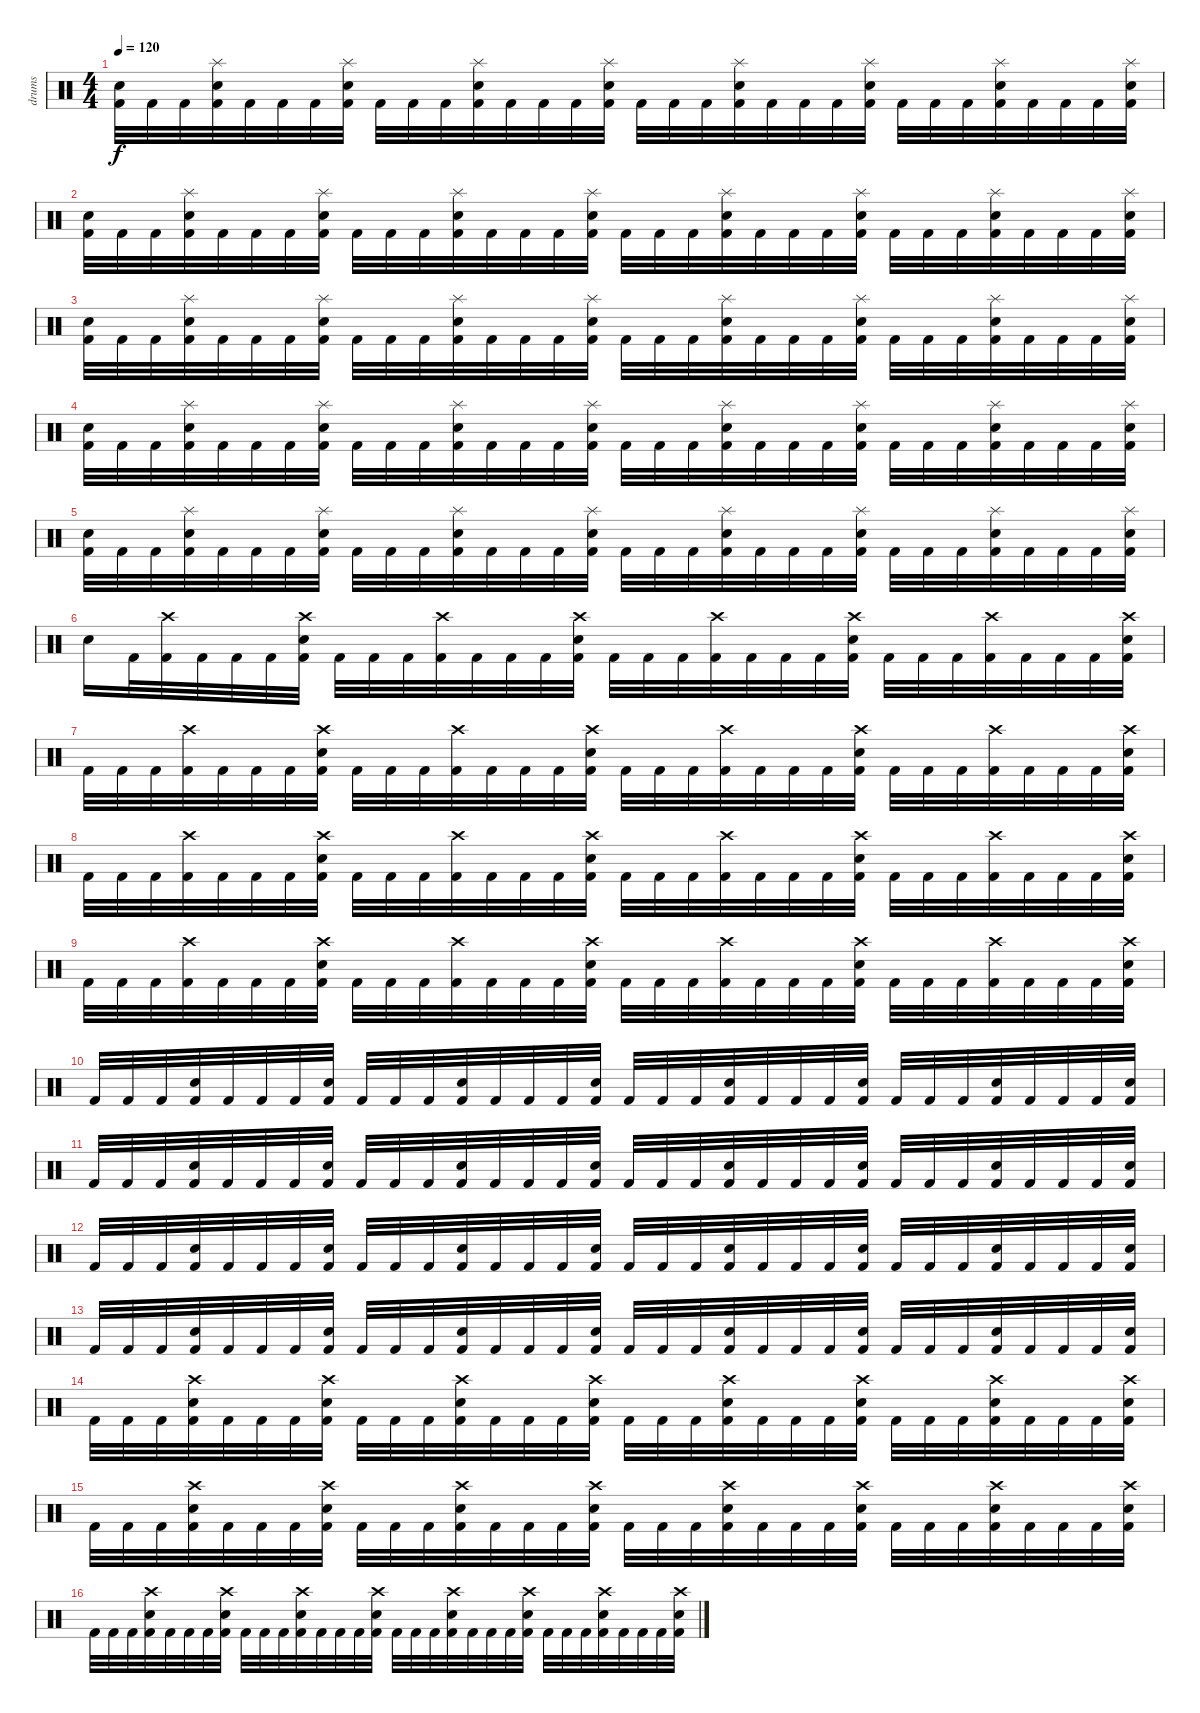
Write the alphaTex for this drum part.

\track ("drums" "drums") {instrument percussion}
\staff {score}
\articulation defaults
\ts (4 4)
\tempo 120
\clef neutral
\ks c
("Electric Snare (hit)" "Kick (hit) 2").32{dy f} "Kick (hit) 2".32 "Kick (hit) 2".32 ("Splash (hit)" "Electric Snare (hit)" "Kick (hit) 2").32 "Kick (hit) 2".32 "Kick (hit) 2".32 "Kick (hit) 2".32 ("Splash (hit)" "Electric Snare (hit)" "Kick (hit) 2").32 "Kick (hit) 2".32 "Kick (hit) 2".32 "Kick (hit) 2".32 ("Splash (hit)" "Electric Snare (hit)" "Kick (hit) 2").32 "Kick (hit) 2".32 "Kick (hit) 2".32 "Kick (hit) 2".32 ("Splash (hit)" "Electric Snare (hit)" "Kick (hit) 2").32 "Kick (hit) 2".32 "Kick (hit) 2".32 "Kick (hit) 2".32 ("Splash (hit)" "Electric Snare (hit)" "Kick (hit) 2").32 "Kick (hit) 2".32 "Kick (hit) 2".32 "Kick (hit) 2".32 ("Splash (hit)" "Electric Snare (hit)" "Kick (hit) 2").32 "Kick (hit) 2".32 "Kick (hit) 2".32 "Kick (hit) 2".32 ("Splash (hit)" "Electric Snare (hit)" "Kick (hit) 2").32 "Kick (hit) 2".32 "Kick (hit) 2".32 "Kick (hit) 2".32 ("Splash (hit)" "Electric Snare (hit)" "Kick (hit) 2").32 |
("Electric Snare (hit)" "Kick (hit) 2").32 "Kick (hit) 2".32 "Kick (hit) 2".32 ("Splash (hit)" "Electric Snare (hit)" "Kick (hit) 2").32 "Kick (hit) 2".32 "Kick (hit) 2".32 "Kick (hit) 2".32 ("Splash (hit)" "Electric Snare (hit)" "Kick (hit) 2").32 "Kick (hit) 2".32 "Kick (hit) 2".32 "Kick (hit) 2".32 ("Splash (hit)" "Electric Snare (hit)" "Kick (hit) 2").32 "Kick (hit) 2".32 "Kick (hit) 2".32 "Kick (hit) 2".32 ("Splash (hit)" "Electric Snare (hit)" "Kick (hit) 2").32 "Kick (hit) 2".32 "Kick (hit) 2".32 "Kick (hit) 2".32 ("Splash (hit)" "Electric Snare (hit)" "Kick (hit) 2").32 "Kick (hit) 2".32 "Kick (hit) 2".32 "Kick (hit) 2".32 ("Splash (hit)" "Electric Snare (hit)" "Kick (hit) 2").32 "Kick (hit) 2".32 "Kick (hit) 2".32 "Kick (hit) 2".32 ("Splash (hit)" "Electric Snare (hit)" "Kick (hit) 2").32 "Kick (hit) 2".32 "Kick (hit) 2".32 "Kick (hit) 2".32 ("Splash (hit)" "Electric Snare (hit)" "Kick (hit) 2").32 |
("Electric Snare (hit)" "Kick (hit) 2").32 "Kick (hit) 2".32 "Kick (hit) 2".32 ("Splash (hit)" "Electric Snare (hit)" "Kick (hit) 2").32 "Kick (hit) 2".32 "Kick (hit) 2".32 "Kick (hit) 2".32 ("Splash (hit)" "Electric Snare (hit)" "Kick (hit) 2").32 "Kick (hit) 2".32 "Kick (hit) 2".32 "Kick (hit) 2".32 ("Splash (hit)" "Electric Snare (hit)" "Kick (hit) 2").32 "Kick (hit) 2".32 "Kick (hit) 2".32 "Kick (hit) 2".32 ("Splash (hit)" "Electric Snare (hit)" "Kick (hit) 2").32 "Kick (hit) 2".32 "Kick (hit) 2".32 "Kick (hit) 2".32 ("Splash (hit)" "Electric Snare (hit)" "Kick (hit) 2").32 "Kick (hit) 2".32 "Kick (hit) 2".32 "Kick (hit) 2".32 ("Splash (hit)" "Electric Snare (hit)" "Kick (hit) 2").32 "Kick (hit) 2".32 "Kick (hit) 2".32 "Kick (hit) 2".32 ("Splash (hit)" "Electric Snare (hit)" "Kick (hit) 2").32 "Kick (hit) 2".32 "Kick (hit) 2".32 "Kick (hit) 2".32 ("Splash (hit)" "Electric Snare (hit)" "Kick (hit) 2").32 |
("Electric Snare (hit)" "Kick (hit) 2").32 "Kick (hit) 2".32 "Kick (hit) 2".32 ("Splash (hit)" "Electric Snare (hit)" "Kick (hit) 2").32 "Kick (hit) 2".32 "Kick (hit) 2".32 "Kick (hit) 2".32 ("Splash (hit)" "Electric Snare (hit)" "Kick (hit) 2").32 "Kick (hit) 2".32 "Kick (hit) 2".32 "Kick (hit) 2".32 ("Splash (hit)" "Electric Snare (hit)" "Kick (hit) 2").32 "Kick (hit) 2".32 "Kick (hit) 2".32 "Kick (hit) 2".32 ("Splash (hit)" "Electric Snare (hit)" "Kick (hit) 2").32 "Kick (hit) 2".32 "Kick (hit) 2".32 "Kick (hit) 2".32 ("Splash (hit)" "Electric Snare (hit)" "Kick (hit) 2").32 "Kick (hit) 2".32 "Kick (hit) 2".32 "Kick (hit) 2".32 ("Splash (hit)" "Electric Snare (hit)" "Kick (hit) 2").32 "Kick (hit) 2".32 "Kick (hit) 2".32 "Kick (hit) 2".32 ("Splash (hit)" "Electric Snare (hit)" "Kick (hit) 2").32 "Kick (hit) 2".32 "Kick (hit) 2".32 "Kick (hit) 2".32 ("Splash (hit)" "Electric Snare (hit)" "Kick (hit) 2").32 |
("Electric Snare (hit)" "Kick (hit) 2").32 "Kick (hit) 2".32 "Kick (hit) 2".32 ("Splash (hit)" "Electric Snare (hit)" "Kick (hit) 2").32 "Kick (hit) 2".32 "Kick (hit) 2".32 "Kick (hit) 2".32 ("Splash (hit)" "Electric Snare (hit)" "Kick (hit) 2").32 "Kick (hit) 2".32 "Kick (hit) 2".32 "Kick (hit) 2".32 ("Splash (hit)" "Electric Snare (hit)" "Kick (hit) 2").32 "Kick (hit) 2".32 "Kick (hit) 2".32 "Kick (hit) 2".32 ("Splash (hit)" "Electric Snare (hit)" "Kick (hit) 2").32 "Kick (hit) 2".32 "Kick (hit) 2".32 "Kick (hit) 2".32 ("Splash (hit)" "Electric Snare (hit)" "Kick (hit) 2").32 "Kick (hit) 2".32 "Kick (hit) 2".32 "Kick (hit) 2".32 ("Splash (hit)" "Electric Snare (hit)" "Kick (hit) 2").32 "Kick (hit) 2".32 "Kick (hit) 2".32 "Kick (hit) 2".32 ("Splash (hit)" "Electric Snare (hit)" "Kick (hit) 2").32 "Kick (hit) 2".32 "Kick (hit) 2".32 "Kick (hit) 2".32 ("Splash (hit)" "Electric Snare (hit)" "Kick (hit) 2").32 |
"Electric Snare (hit)".16 "Kick (hit) 2".32 ("Crash high (hit)" "Kick (hit) 2").32 "Kick (hit) 2".32 "Kick (hit) 2".32 "Kick (hit) 2".32 ("Crash high (hit)" "Electric Snare (hit)" "Kick (hit) 2").32 "Kick (hit) 2".32 "Kick (hit) 2".32 "Kick (hit) 2".32 ("Crash high (hit)" "Kick (hit) 2").32 "Kick (hit) 2".32 "Kick (hit) 2".32 "Kick (hit) 2".32 ("Crash high (hit)" "Electric Snare (hit)" "Kick (hit) 2").32 "Kick (hit) 2".32 "Kick (hit) 2".32 "Kick (hit) 2".32 ("Crash high (hit)" "Kick (hit) 2").32 "Kick (hit) 2".32 "Kick (hit) 2".32 "Kick (hit) 2".32 ("Crash high (hit)" "Electric Snare (hit)" "Kick (hit) 2").32 "Kick (hit) 2".32 "Kick (hit) 2".32 "Kick (hit) 2".32 ("Crash high (hit)" "Kick (hit) 2").32 "Kick (hit) 2".32 "Kick (hit) 2".32 "Kick (hit) 2".32 ("Crash high (hit)" "Electric Snare (hit)" "Kick (hit) 2").32 |
"Kick (hit) 2".32 "Kick (hit) 2".32 "Kick (hit) 2".32 ("Crash high (hit)" "Kick (hit) 2").32 "Kick (hit) 2".32 "Kick (hit) 2".32 "Kick (hit) 2".32 ("Crash high (hit)" "Electric Snare (hit)" "Kick (hit) 2").32 "Kick (hit) 2".32 "Kick (hit) 2".32 "Kick (hit) 2".32 ("Crash high (hit)" "Kick (hit) 2").32 "Kick (hit) 2".32 "Kick (hit) 2".32 "Kick (hit) 2".32 ("Crash high (hit)" "Electric Snare (hit)" "Kick (hit) 2").32 "Kick (hit) 2".32 "Kick (hit) 2".32 "Kick (hit) 2".32 ("Crash high (hit)" "Kick (hit) 2").32 "Kick (hit) 2".32 "Kick (hit) 2".32 "Kick (hit) 2".32 ("Crash high (hit)" "Electric Snare (hit)" "Kick (hit) 2").32 "Kick (hit) 2".32 "Kick (hit) 2".32 "Kick (hit) 2".32 ("Crash high (hit)" "Kick (hit) 2").32 "Kick (hit) 2".32 "Kick (hit) 2".32 "Kick (hit) 2".32 ("Crash high (hit)" "Electric Snare (hit)" "Kick (hit) 2").32 |
"Kick (hit) 2".32 "Kick (hit) 2".32 "Kick (hit) 2".32 ("Crash high (hit)" "Kick (hit) 2").32 "Kick (hit) 2".32 "Kick (hit) 2".32 "Kick (hit) 2".32 ("Crash high (hit)" "Electric Snare (hit)" "Kick (hit) 2").32 "Kick (hit) 2".32 "Kick (hit) 2".32 "Kick (hit) 2".32 ("Crash high (hit)" "Kick (hit) 2").32 "Kick (hit) 2".32 "Kick (hit) 2".32 "Kick (hit) 2".32 ("Crash high (hit)" "Electric Snare (hit)" "Kick (hit) 2").32 "Kick (hit) 2".32 "Kick (hit) 2".32 "Kick (hit) 2".32 ("Crash high (hit)" "Kick (hit) 2").32 "Kick (hit) 2".32 "Kick (hit) 2".32 "Kick (hit) 2".32 ("Crash high (hit)" "Electric Snare (hit)" "Kick (hit) 2").32 "Kick (hit) 2".32 "Kick (hit) 2".32 "Kick (hit) 2".32 ("Crash high (hit)" "Kick (hit) 2").32 "Kick (hit) 2".32 "Kick (hit) 2".32 "Kick (hit) 2".32 ("Crash high (hit)" "Electric Snare (hit)" "Kick (hit) 2").32 |
"Kick (hit) 2".32 "Kick (hit) 2".32 "Kick (hit) 2".32 ("Crash high (hit)" "Kick (hit) 2").32 "Kick (hit) 2".32 "Kick (hit) 2".32 "Kick (hit) 2".32 ("Crash high (hit)" "Electric Snare (hit)" "Kick (hit) 2").32 "Kick (hit) 2".32 "Kick (hit) 2".32 "Kick (hit) 2".32 ("Crash high (hit)" "Kick (hit) 2").32 "Kick (hit) 2".32 "Kick (hit) 2".32 "Kick (hit) 2".32 ("Crash high (hit)" "Electric Snare (hit)" "Kick (hit) 2").32 "Kick (hit) 2".32 "Kick (hit) 2".32 "Kick (hit) 2".32 ("Crash high (hit)" "Kick (hit) 2").32 "Kick (hit) 2".32 "Kick (hit) 2".32 "Kick (hit) 2".32 ("Crash high (hit)" "Electric Snare (hit)" "Kick (hit) 2").32 "Kick (hit) 2".32 "Kick (hit) 2".32 "Kick (hit) 2".32 ("Crash high (hit)" "Kick (hit) 2").32 "Kick (hit) 2".32 "Kick (hit) 2".32 "Kick (hit) 2".32 ("Crash high (hit)" "Electric Snare (hit)" "Kick (hit) 2").32 |
"Kick (hit) 2".32 "Kick (hit) 2".32 "Kick (hit) 2".32 ("Electric Snare (hit)" "Kick (hit) 2").32 "Kick (hit) 2".32 "Kick (hit) 2".32 "Kick (hit) 2".32 ("Electric Snare (hit)" "Kick (hit) 2").32 "Kick (hit) 2".32 "Kick (hit) 2".32 "Kick (hit) 2".32 ("Electric Snare (hit)" "Kick (hit) 2").32 "Kick (hit) 2".32 "Kick (hit) 2".32 "Kick (hit) 2".32 ("Electric Snare (hit)" "Kick (hit) 2").32 "Kick (hit) 2".32 "Kick (hit) 2".32 "Kick (hit) 2".32 ("Electric Snare (hit)" "Kick (hit) 2").32 "Kick (hit) 2".32 "Kick (hit) 2".32 "Kick (hit) 2".32 ("Electric Snare (hit)" "Kick (hit) 2").32 "Kick (hit) 2".32 "Kick (hit) 2".32 "Kick (hit) 2".32 ("Electric Snare (hit)" "Kick (hit) 2").32 "Kick (hit) 2".32 "Kick (hit) 2".32 "Kick (hit) 2".32 ("Electric Snare (hit)" "Kick (hit) 2").32 |
"Kick (hit) 2".32 "Kick (hit) 2".32 "Kick (hit) 2".32 ("Electric Snare (hit)" "Kick (hit) 2").32 "Kick (hit) 2".32 "Kick (hit) 2".32 "Kick (hit) 2".32 ("Electric Snare (hit)" "Kick (hit) 2").32 "Kick (hit) 2".32 "Kick (hit) 2".32 "Kick (hit) 2".32 ("Electric Snare (hit)" "Kick (hit) 2").32 "Kick (hit) 2".32 "Kick (hit) 2".32 "Kick (hit) 2".32 ("Electric Snare (hit)" "Kick (hit) 2").32 "Kick (hit) 2".32 "Kick (hit) 2".32 "Kick (hit) 2".32 ("Electric Snare (hit)" "Kick (hit) 2").32 "Kick (hit) 2".32 "Kick (hit) 2".32 "Kick (hit) 2".32 ("Electric Snare (hit)" "Kick (hit) 2").32 "Kick (hit) 2".32 "Kick (hit) 2".32 "Kick (hit) 2".32 ("Electric Snare (hit)" "Kick (hit) 2").32 "Kick (hit) 2".32 "Kick (hit) 2".32 "Kick (hit) 2".32 ("Electric Snare (hit)" "Kick (hit) 2").32 |
"Kick (hit) 2".32 "Kick (hit) 2".32 "Kick (hit) 2".32 ("Electric Snare (hit)" "Kick (hit) 2").32 "Kick (hit) 2".32 "Kick (hit) 2".32 "Kick (hit) 2".32 ("Electric Snare (hit)" "Kick (hit) 2").32 "Kick (hit) 2".32 "Kick (hit) 2".32 "Kick (hit) 2".32 ("Electric Snare (hit)" "Kick (hit) 2").32 "Kick (hit) 2".32 "Kick (hit) 2".32 "Kick (hit) 2".32 ("Electric Snare (hit)" "Kick (hit) 2").32 "Kick (hit) 2".32 "Kick (hit) 2".32 "Kick (hit) 2".32 ("Electric Snare (hit)" "Kick (hit) 2").32 "Kick (hit) 2".32 "Kick (hit) 2".32 "Kick (hit) 2".32 ("Electric Snare (hit)" "Kick (hit) 2").32 "Kick (hit) 2".32 "Kick (hit) 2".32 "Kick (hit) 2".32 ("Electric Snare (hit)" "Kick (hit) 2").32 "Kick (hit) 2".32 "Kick (hit) 2".32 "Kick (hit) 2".32 ("Electric Snare (hit)" "Kick (hit) 2").32 |
"Kick (hit) 2".32 "Kick (hit) 2".32 "Kick (hit) 2".32 ("Electric Snare (hit)" "Kick (hit) 2").32 "Kick (hit) 2".32 "Kick (hit) 2".32 "Kick (hit) 2".32 ("Electric Snare (hit)" "Kick (hit) 2").32 "Kick (hit) 2".32 "Kick (hit) 2".32 "Kick (hit) 2".32 ("Electric Snare (hit)" "Kick (hit) 2").32 "Kick (hit) 2".32 "Kick (hit) 2".32 "Kick (hit) 2".32 ("Electric Snare (hit)" "Kick (hit) 2").32 "Kick (hit) 2".32 "Kick (hit) 2".32 "Kick (hit) 2".32 ("Electric Snare (hit)" "Kick (hit) 2").32 "Kick (hit) 2".32 "Kick (hit) 2".32 "Kick (hit) 2".32 ("Electric Snare (hit)" "Kick (hit) 2").32 "Kick (hit) 2".32 "Kick (hit) 2".32 "Kick (hit) 2".32 ("Electric Snare (hit)" "Kick (hit) 2").32 "Kick (hit) 2".32 "Kick (hit) 2".32 "Kick (hit) 2".32 ("Electric Snare (hit)" "Kick (hit) 2").32 |
"Kick (hit) 2".32 "Kick (hit) 2".32 "Kick (hit) 2".32 ("Crash high (hit)" "Electric Snare (hit)" "Kick (hit) 2").32 "Kick (hit) 2".32 "Kick (hit) 2".32 "Kick (hit) 2".32 ("Crash high (hit)" "Electric Snare (hit)" "Kick (hit) 2").32 "Kick (hit) 2".32 "Kick (hit) 2".32 "Kick (hit) 2".32 ("Crash high (hit)" "Electric Snare (hit)" "Kick (hit) 2").32 "Kick (hit) 2".32 "Kick (hit) 2".32 "Kick (hit) 2".32 ("Crash high (hit)" "Electric Snare (hit)" "Kick (hit) 2").32 "Kick (hit) 2".32 "Kick (hit) 2".32 "Kick (hit) 2".32 ("Crash high (hit)" "Electric Snare (hit)" "Kick (hit) 2").32 "Kick (hit) 2".32 "Kick (hit) 2".32 "Kick (hit) 2".32 ("Crash high (hit)" "Electric Snare (hit)" "Kick (hit) 2").32 "Kick (hit) 2".32 "Kick (hit) 2".32 "Kick (hit) 2".32 ("Crash high (hit)" "Electric Snare (hit)" "Kick (hit) 2").32 "Kick (hit) 2".32 "Kick (hit) 2".32 "Kick (hit) 2".32 ("Crash high (hit)" "Electric Snare (hit)" "Kick (hit) 2").32 |
"Kick (hit) 2".32 "Kick (hit) 2".32 "Kick (hit) 2".32 ("Crash high (hit)" "Electric Snare (hit)" "Kick (hit) 2").32 "Kick (hit) 2".32 "Kick (hit) 2".32 "Kick (hit) 2".32 ("Crash high (hit)" "Electric Snare (hit)" "Kick (hit) 2").32 "Kick (hit) 2".32 "Kick (hit) 2".32 "Kick (hit) 2".32 ("Crash high (hit)" "Electric Snare (hit)" "Kick (hit) 2").32 "Kick (hit) 2".32 "Kick (hit) 2".32 "Kick (hit) 2".32 ("Crash high (hit)" "Electric Snare (hit)" "Kick (hit) 2").32 "Kick (hit) 2".32 "Kick (hit) 2".32 "Kick (hit) 2".32 ("Crash high (hit)" "Electric Snare (hit)" "Kick (hit) 2").32 "Kick (hit) 2".32 "Kick (hit) 2".32 "Kick (hit) 2".32 ("Crash high (hit)" "Electric Snare (hit)" "Kick (hit) 2").32 "Kick (hit) 2".32 "Kick (hit) 2".32 "Kick (hit) 2".32 ("Crash high (hit)" "Electric Snare (hit)" "Kick (hit) 2").32 "Kick (hit) 2".32 "Kick (hit) 2".32 "Kick (hit) 2".32 ("Crash high (hit)" "Electric Snare (hit)" "Kick (hit) 2").32 |
"Kick (hit) 2".32 "Kick (hit) 2".32 "Kick (hit) 2".32 ("Crash high (hit)" "Electric Snare (hit)" "Kick (hit) 2").32 "Kick (hit) 2".32 "Kick (hit) 2".32 "Kick (hit) 2".32 ("Crash high (hit)" "Electric Snare (hit)" "Kick (hit) 2").32 "Kick (hit) 2".32 "Kick (hit) 2".32 "Kick (hit) 2".32 ("Crash high (hit)" "Electric Snare (hit)" "Kick (hit) 2").32 "Kick (hit) 2".32 "Kick (hit) 2".32 "Kick (hit) 2".32 ("Crash high (hit)" "Electric Snare (hit)" "Kick (hit) 2").32 "Kick (hit) 2".32 "Kick (hit) 2".32 "Kick (hit) 2".32 ("Crash high (hit)" "Electric Snare (hit)" "Kick (hit) 2").32 "Kick (hit) 2".32 "Kick (hit) 2".32 "Kick (hit) 2".32 ("Crash high (hit)" "Electric Snare (hit)" "Kick (hit) 2").32 "Kick (hit) 2".32 "Kick (hit) 2".32 "Kick (hit) 2".32 ("Crash high (hit)" "Electric Snare (hit)" "Kick (hit) 2").32 "Kick (hit) 2".32 "Kick (hit) 2".32 "Kick (hit) 2".32 ("Crash high (hit)" "Electric Snare (hit)" "Kick (hit) 2").32
